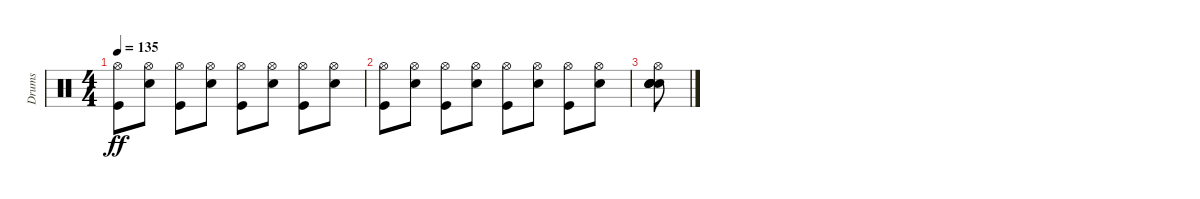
\track ("Drums" "Drums") {instrument percussion}
\staff {score}
\articulation defaults
\ts (4 4)
\tempo 135
\clef neutral
\ks c
("Kick (hit)" "Hi-Hat (open)").8{dy ff} ("Electric Snare (hit)" "Hi-Hat (open)").8 ("Kick (hit)" "Hi-Hat (open)").8 ("Electric Snare (hit)" "Hi-Hat (open)").8 ("Kick (hit)" "Hi-Hat (open)").8 ("Electric Snare (hit)" "Hi-Hat (open)").8 ("Kick (hit)" "Hi-Hat (open)").8 ("Electric Snare (hit)" "Hi-Hat (open)").8 |
("Kick (hit)" "Hi-Hat (open)").8 ("Electric Snare (hit)" "Hi-Hat (open)").8 ("Kick (hit)" "Hi-Hat (open)").8 ("Electric Snare (hit)" "Hi-Hat (open)").8 ("Kick (hit)" "Hi-Hat (open)").8 ("Electric Snare (hit)" "Hi-Hat (open)").8 ("Kick (hit)" "Hi-Hat (open)").8 ("Electric Snare (hit)" "Hi-Hat (open)").8 |
("Hi-Hat (open)" "Snare (hit)" "Snare (hit)" "Snare (hit)" "Snare (hit)").8
